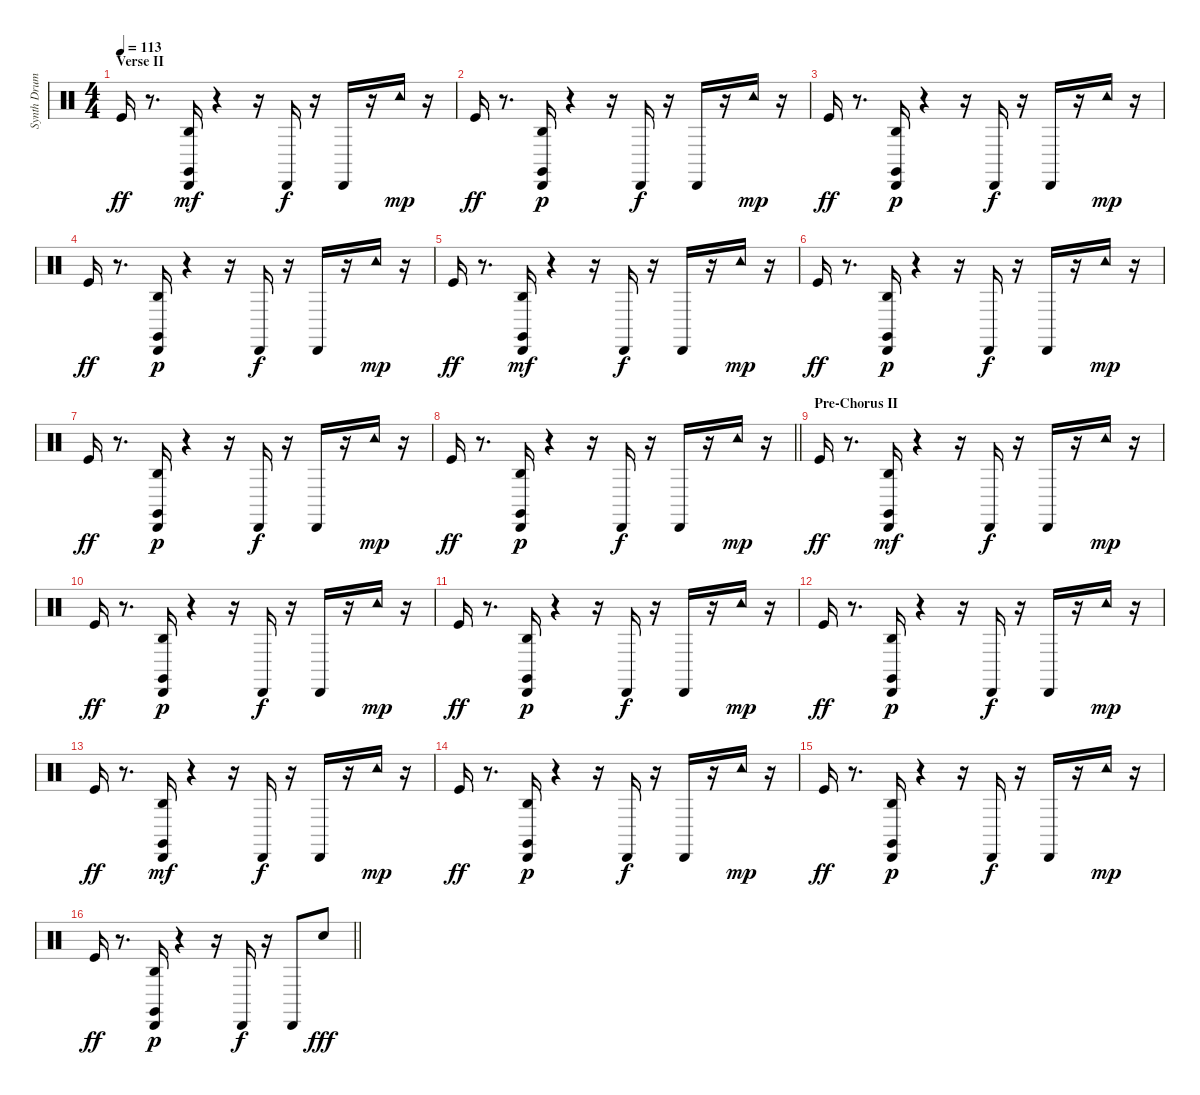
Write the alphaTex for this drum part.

\track ("Synth Drums" "Synth Drum") {instrument percussion}
\staff {score}
\articulation defaults
\ts (4 4)
\section ("" "Verse II")
\tempo 113
\clef neutral
\ks c "Kick (hit)".16{dy ff}
r.8{d} ("Agogo high (hit)" "Claves (hit)" "Cabasa (hit)").16{dy mf} r.4 r.16 "Cabasa (hit)".16{dy f} r.16 "Cabasa (hit)".16 r.16 "Tambourine (hit)".16{dy mp} r.16 |
"Kick (hit)".16{dy ff} r.8{d} ("Cabasa (hit)" "Claves (hit)" "Agogo high (hit)").16{dy p} r.4 r.16 "Cabasa (hit)".16{dy f} r.16 "Cabasa (hit)".16 r.16 "Tambourine (hit)".16{dy mp} r.16 |
"Kick (hit)".16{dy ff} r.8{d} ("Cabasa (hit)" "Claves (hit)" "Agogo high (hit)").16{dy p} r.4 r.16 "Cabasa (hit)".16{dy f} r.16 "Cabasa (hit)".16 r.16 "Tambourine (hit)".16{dy mp} r.16 |
"Kick (hit)".16{dy ff} r.8{d} ("Cabasa (hit)" "Claves (hit)" "Agogo high (hit)").16{dy p} r.4 r.16 "Cabasa (hit)".16{dy f} r.16 "Cabasa (hit)".16 r.16 "Tambourine (hit)".16{dy mp} r.16 |
"Kick (hit)".16{dy ff} r.8{d} ("Agogo high (hit)" "Claves (hit)" "Cabasa (hit)").16{dy mf} r.4 r.16 "Cabasa (hit)".16{dy f} r.16 "Cabasa (hit)".16 r.16 "Tambourine (hit)".16{dy mp} r.16 |
"Kick (hit)".16{dy ff} r.8{d} ("Cabasa (hit)" "Claves (hit)" "Agogo high (hit)").16{dy p} r.4 r.16 "Cabasa (hit)".16{dy f} r.16 "Cabasa (hit)".16 r.16 "Tambourine (hit)".16{dy mp} r.16 |
"Kick (hit)".16{dy ff} r.8{d} ("Cabasa (hit)" "Claves (hit)" "Agogo high (hit)").16{dy p} r.4 r.16 "Cabasa (hit)".16{dy f} r.16 "Cabasa (hit)".16 r.16 "Tambourine (hit)".16{dy mp} r.16 |
\barLineRight lightlight "Kick (hit)".16{dy ff}
r.8{d} ("Cabasa (hit)" "Claves (hit)" "Agogo high (hit)").16{dy p} r.4 r.16 "Cabasa (hit)".16{dy f} r.16 "Cabasa (hit)".16 r.16 "Tambourine (hit)".16{dy mp} r.16 |
\section ("" "Pre-Chorus II")
"Kick (hit)".16{dy ff} r.8{d} ("Agogo high (hit)" "Claves (hit)" "Cabasa (hit)").16{dy mf} r.4 r.16 "Cabasa (hit)".16{dy f} r.16 "Cabasa (hit)".16 r.16 "Tambourine (hit)".16{dy mp} r.16 |
"Kick (hit)".16{dy ff} r.8{d} ("Cabasa (hit)" "Claves (hit)" "Agogo high (hit)").16{dy p} r.4 r.16 "Cabasa (hit)".16{dy f} r.16 "Cabasa (hit)".16 r.16 "Tambourine (hit)".16{dy mp} r.16 |
"Kick (hit)".16{dy ff} r.8{d} ("Cabasa (hit)" "Claves (hit)" "Agogo high (hit)").16{dy p} r.4 r.16 "Cabasa (hit)".16{dy f} r.16 "Cabasa (hit)".16 r.16 "Tambourine (hit)".16{dy mp} r.16 |
"Kick (hit)".16{dy ff} r.8{d} ("Cabasa (hit)" "Claves (hit)" "Agogo high (hit)").16{dy p} r.4 r.16 "Cabasa (hit)".16{dy f} r.16 "Cabasa (hit)".16 r.16 "Tambourine (hit)".16{dy mp} r.16 |
"Kick (hit)".16{dy ff} r.8{d} ("Agogo high (hit)" "Claves (hit)" "Cabasa (hit)").16{dy mf} r.4 r.16 "Cabasa (hit)".16{dy f} r.16 "Cabasa (hit)".16 r.16 "Tambourine (hit)".16{dy mp} r.16 |
"Kick (hit)".16{dy ff} r.8{d} ("Cabasa (hit)" "Claves (hit)" "Agogo high (hit)").16{dy p} r.4 r.16 "Cabasa (hit)".16{dy f} r.16 "Cabasa (hit)".16 r.16 "Tambourine (hit)".16{dy mp} r.16 |
"Kick (hit)".16{dy ff} r.8{d} ("Cabasa (hit)" "Claves (hit)" "Agogo high (hit)").16{dy p} r.4 r.16 "Cabasa (hit)".16{dy f} r.16 "Cabasa (hit)".16 r.16 "Tambourine (hit)".16{dy mp} r.16 |
\barLineRight lightlight "Kick (hit)".16{dy ff}
r.8{d} ("Cabasa (hit)" "Claves (hit)" "Agogo high (hit)").16{dy p} r.4 r.16 "Cabasa (hit)".16{dy f} r.16 "Cabasa (hit)".8 "Electric Snare (hit)".8{dy fff}
